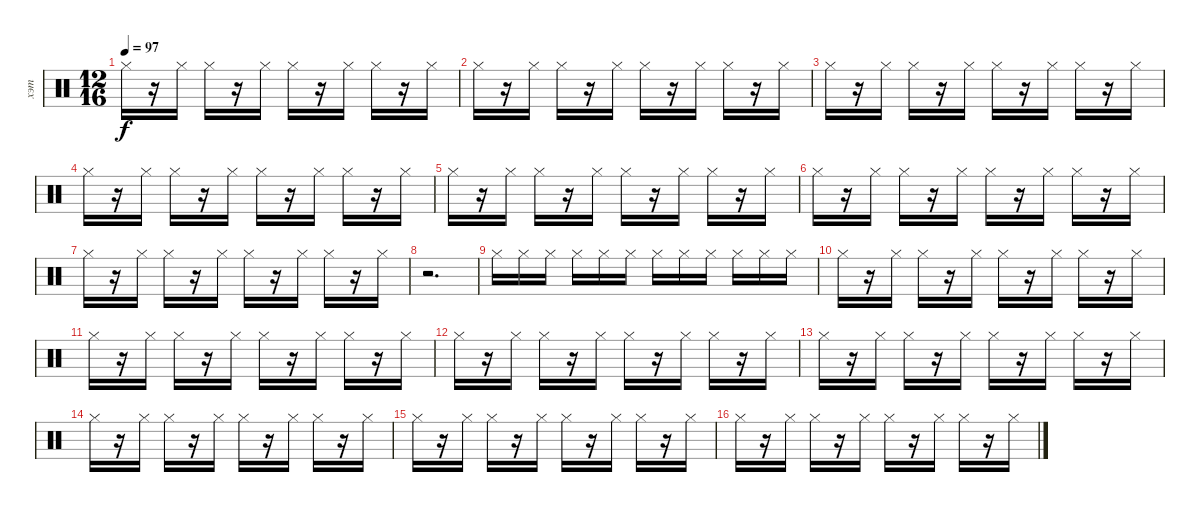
\track ("хэт" "хэт") {instrument percussion}
\staff {score}
\articulation defaults
\ts (12 16)
\tempo 97
\clef neutral
\ks c "Hi-Hat (closed)".16{dy f}
r.16 "Hi-Hat (closed)".16 "Hi-Hat (closed)".16 r.16 "Hi-Hat (closed)".16 "Hi-Hat (closed)".16 r.16 "Hi-Hat (closed)".16 "Hi-Hat (closed)".16 r.16 "Hi-Hat (closed)".16 |
"Hi-Hat (closed)".16 r.16 "Hi-Hat (closed)".16 "Hi-Hat (closed)".16 r.16 "Hi-Hat (closed)".16 "Hi-Hat (closed)".16 r.16 "Hi-Hat (closed)".16 "Hi-Hat (closed)".16 r.16 "Hi-Hat (closed)".16 |
"Hi-Hat (closed)".16 r.16 "Hi-Hat (closed)".16 "Hi-Hat (closed)".16 r.16 "Hi-Hat (closed)".16 "Hi-Hat (closed)".16 r.16 "Hi-Hat (closed)".16 "Hi-Hat (closed)".16 r.16 "Hi-Hat (closed)".16 |
"Hi-Hat (closed)".16 r.16 "Hi-Hat (closed)".16 "Hi-Hat (closed)".16 r.16 "Hi-Hat (closed)".16 "Hi-Hat (closed)".16 r.16 "Hi-Hat (closed)".16 "Hi-Hat (closed)".16 r.16 "Hi-Hat (closed)".16 |
"Hi-Hat (closed)".16 r.16 "Hi-Hat (closed)".16 "Hi-Hat (closed)".16 r.16 "Hi-Hat (closed)".16 "Hi-Hat (closed)".16 r.16 "Hi-Hat (closed)".16 "Hi-Hat (closed)".16 r.16 "Hi-Hat (closed)".16 |
"Hi-Hat (closed)".16 r.16 "Hi-Hat (closed)".16 "Hi-Hat (closed)".16 r.16 "Hi-Hat (closed)".16 "Hi-Hat (closed)".16 r.16 "Hi-Hat (closed)".16 "Hi-Hat (closed)".16 r.16 "Hi-Hat (closed)".16 |
"Hi-Hat (closed)".16 r.16 "Hi-Hat (closed)".16 "Hi-Hat (closed)".16 r.16 "Hi-Hat (closed)".16 "Hi-Hat (closed)".16 r.16 "Hi-Hat (closed)".16 "Hi-Hat (closed)".16 r.16 "Hi-Hat (closed)".16 |
r.2{d} |
"Hi-Hat (closed)".16 "Hi-Hat (closed)".16 "Hi-Hat (closed)".16 "Hi-Hat (closed)".16 "Hi-Hat (closed)".16 "Hi-Hat (closed)".16 "Hi-Hat (closed)".16 "Hi-Hat (closed)".16 "Hi-Hat (closed)".16 "Hi-Hat (closed)".16 "Hi-Hat (closed)".16 "Hi-Hat (closed)".16 |
"Hi-Hat (closed)".16 r.16 "Hi-Hat (closed)".16 "Hi-Hat (closed)".16 r.16 "Hi-Hat (closed)".16 "Hi-Hat (closed)".16 r.16 "Hi-Hat (closed)".16 "Hi-Hat (closed)".16 r.16 "Hi-Hat (closed)".16 |
"Hi-Hat (closed)".16 r.16 "Hi-Hat (closed)".16 "Hi-Hat (closed)".16 r.16 "Hi-Hat (closed)".16 "Hi-Hat (closed)".16 r.16 "Hi-Hat (closed)".16 "Hi-Hat (closed)".16 r.16 "Hi-Hat (closed)".16 |
"Hi-Hat (closed)".16 r.16 "Hi-Hat (closed)".16 "Hi-Hat (closed)".16 r.16 "Hi-Hat (closed)".16 "Hi-Hat (closed)".16 r.16 "Hi-Hat (closed)".16 "Hi-Hat (closed)".16 r.16 "Hi-Hat (closed)".16 |
"Hi-Hat (closed)".16 r.16 "Hi-Hat (closed)".16 "Hi-Hat (closed)".16 r.16 "Hi-Hat (closed)".16 "Hi-Hat (closed)".16 r.16 "Hi-Hat (closed)".16 "Hi-Hat (closed)".16 r.16 "Hi-Hat (closed)".16 |
"Hi-Hat (closed)".16 r.16 "Hi-Hat (closed)".16 "Hi-Hat (closed)".16 r.16 "Hi-Hat (closed)".16 "Hi-Hat (closed)".16 r.16 "Hi-Hat (closed)".16 "Hi-Hat (closed)".16 r.16 "Hi-Hat (closed)".16 |
"Hi-Hat (closed)".16 r.16 "Hi-Hat (closed)".16 "Hi-Hat (closed)".16 r.16 "Hi-Hat (closed)".16 "Hi-Hat (closed)".16 r.16 "Hi-Hat (closed)".16 "Hi-Hat (closed)".16 r.16 "Hi-Hat (closed)".16 |
"Hi-Hat (closed)".16 r.16 "Hi-Hat (closed)".16 "Hi-Hat (closed)".16 r.16 "Hi-Hat (closed)".16 "Hi-Hat (closed)".16 r.16 "Hi-Hat (closed)".16 "Hi-Hat (closed)".16 r.16 "Hi-Hat (closed)".16
